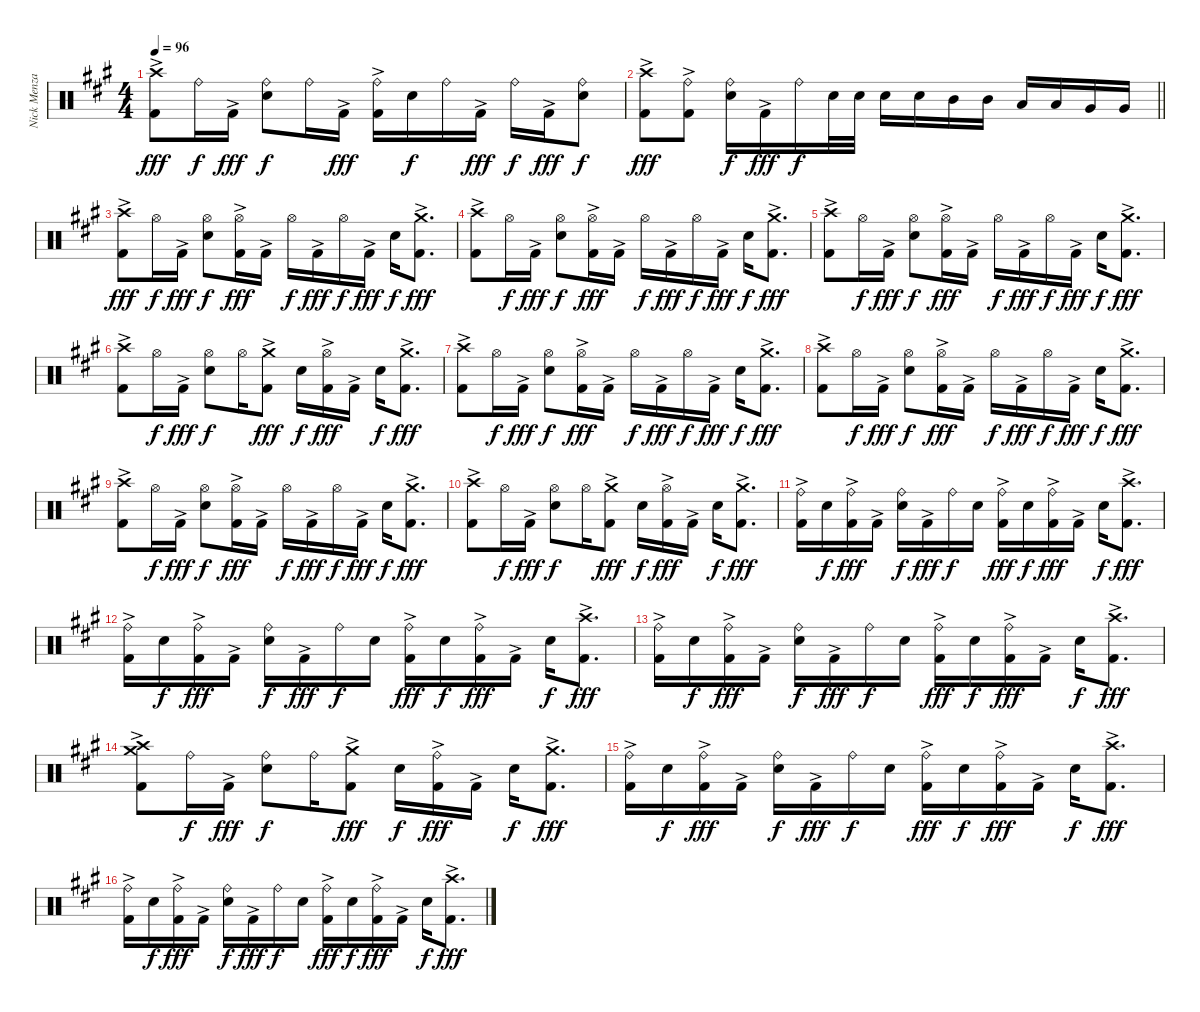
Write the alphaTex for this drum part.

\track ("Nick Menza" "Nick Menza") {instrument percussion}
\staff {score}
\articulation defaults
\ts (4 4)
\tempo 96
\clef neutral
\ks f#minor
("Crash high (hit)" "Kick (hit) 2"{ac}).8{dy fff} "Ride (bell)".16{dy f} "Kick (hit) 2"{ac}.16{dy fff} ("Ride (bell)" "Snare (hit) 2").8{dy f} "Ride (bell)".16 "Kick (hit) 2"{ac}.16{dy fff} ("Ride (bell)" "Kick (hit) 2"{ac}).16 "Snare (hit) 2".16{dy f} "Ride (bell)".16 "Kick (hit) 2"{ac}.16{dy fff} "Ride (bell)".16{dy f} "Kick (hit) 2"{ac}.16{dy fff} ("Ride (bell)" "Snare (hit) 2").8{dy f} |
\barLineRight lightlight
("Crash high (hit)" "Kick (hit) 2"{ac}).8{dy fff} ("Ride (bell)" "Kick (hit) 2"{ac}).8 ("Ride (bell)" "Snare (hit) 2").16{dy f} "Kick (hit) 2"{ac}.16{dy fff} "Ride (bell)".16{dy f} "Snare (hit) 2".32 "Snare (hit) 2".32 "Snare (hit) 2".16 "Snare (hit) 2".16 "Mid Tom (hit)".16 "Mid Tom (hit)".16 "Low Tom (hit)".16 "Low Tom (hit)".16 "Very Low Tom (hit)".16 "Very Low Tom (hit)".16 |
("Crash high (hit)" "Kick (hit) 2"{ac}).8{dy fff} "Hi-Hat (open)".16{dy f} "Kick (hit) 2"{ac}.16{dy fff} ("Hi-Hat (open)" "Snare (hit) 2").8{dy f} ("Hi-Hat (open)" "Kick (hit) 2"{ac}).16{dy fff} "Kick (hit) 2"{ac}.16 "Hi-Hat (open)".16{dy f} "Kick (hit) 2"{ac}.16{dy fff} "Hi-Hat (open)".16{dy f} "Kick (hit) 2"{ac}.16{dy fff} "Snare (hit) 2".16{dy f} ("Crash medium (hit)" "Kick (hit) 2"{ac}).8{d dy fff} |
("Crash high (hit)" "Kick (hit) 2"{ac}).8 "Hi-Hat (open)".16{dy f} "Kick (hit) 2"{ac}.16{dy fff} ("Hi-Hat (open)" "Snare (hit) 2").8{dy f} ("Hi-Hat (open)" "Kick (hit) 2"{ac}).16{dy fff} "Kick (hit) 2"{ac}.16 "Hi-Hat (open)".16{dy f} "Kick (hit) 2"{ac}.16{dy fff} "Hi-Hat (open)".16{dy f} "Kick (hit) 2"{ac}.16{dy fff} "Snare (hit) 2".16{dy f} ("Crash medium (hit)" "Kick (hit) 2"{ac}).8{d dy fff} |
("Crash high (hit)" "Kick (hit) 2"{ac}).8 "Hi-Hat (open)".16{dy f} "Kick (hit) 2"{ac}.16{dy fff} ("Hi-Hat (open)" "Snare (hit) 2").8{dy f} ("Hi-Hat (open)" "Kick (hit) 2"{ac}).16{dy fff} "Kick (hit) 2"{ac}.16 "Hi-Hat (open)".16{dy f} "Kick (hit) 2"{ac}.16{dy fff} "Hi-Hat (open)".16{dy f} "Kick (hit) 2"{ac}.16{dy fff} "Snare (hit) 2".16{dy f} ("Crash medium (hit)" "Kick (hit) 2"{ac}).8{d dy fff} |
("Crash high (hit)" "Kick (hit) 2"{ac}).8 "Hi-Hat (open)".16{dy f} "Kick (hit) 2"{ac}.16{dy fff} ("Hi-Hat (open)" "Snare (hit) 2").8{dy f} "Hi-Hat (open)".16 ("Crash medium (hit)" "Kick (hit) 2"{ac}).8{dy fff} "Snare (hit) 2".16{dy f} ("Hi-Hat (open)" "Kick (hit) 2"{ac}).16{dy fff} "Kick (hit) 2"{ac}.16 "Snare (hit) 2".16{dy f} ("Crash medium (hit)" "Kick (hit) 2"{ac}).8{d dy fff} |
("Crash high (hit)" "Kick (hit) 2"{ac}).8 "Hi-Hat (open)".16{dy f} "Kick (hit) 2"{ac}.16{dy fff} ("Hi-Hat (open)" "Snare (hit) 2").8{dy f} ("Hi-Hat (open)" "Kick (hit) 2"{ac}).16{dy fff} "Kick (hit) 2"{ac}.16 "Hi-Hat (open)".16{dy f} "Kick (hit) 2"{ac}.16{dy fff} "Hi-Hat (open)".16{dy f} "Kick (hit) 2"{ac}.16{dy fff} "Snare (hit) 2".16{dy f} ("Crash medium (hit)" "Kick (hit) 2"{ac}).8{d dy fff} |
("Crash high (hit)" "Kick (hit) 2"{ac}).8 "Hi-Hat (open)".16{dy f} "Kick (hit) 2"{ac}.16{dy fff} ("Hi-Hat (open)" "Snare (hit) 2").8{dy f} ("Hi-Hat (open)" "Kick (hit) 2"{ac}).16{dy fff} "Kick (hit) 2"{ac}.16 "Hi-Hat (open)".16{dy f} "Kick (hit) 2"{ac}.16{dy fff} "Hi-Hat (open)".16{dy f} "Kick (hit) 2"{ac}.16{dy fff} "Snare (hit) 2".16{dy f} ("Crash medium (hit)" "Kick (hit) 2"{ac}).8{d dy fff} |
("Crash high (hit)" "Kick (hit) 2"{ac}).8 "Hi-Hat (open)".16{dy f} "Kick (hit) 2"{ac}.16{dy fff} ("Hi-Hat (open)" "Snare (hit) 2").8{dy f} ("Hi-Hat (open)" "Kick (hit) 2"{ac}).16{dy fff} "Kick (hit) 2"{ac}.16 "Hi-Hat (open)".16{dy f} "Kick (hit) 2"{ac}.16{dy fff} "Hi-Hat (open)".16{dy f} "Kick (hit) 2"{ac}.16{dy fff} "Snare (hit) 2".16{dy f} ("Crash medium (hit)" "Kick (hit) 2"{ac}).8{d dy fff} |
("Crash high (hit)" "Kick (hit) 2"{ac}).8 "Hi-Hat (open)".16{dy f} "Kick (hit) 2"{ac}.16{dy fff} ("Hi-Hat (open)" "Snare (hit) 2").8{dy f} "Hi-Hat (open)".16 ("Crash medium (hit)" "Kick (hit) 2"{ac}).8{dy fff} "Snare (hit) 2".16{dy f} ("Hi-Hat (open)" "Kick (hit) 2"{ac}).16{dy fff} "Kick (hit) 2"{ac}.16 "Snare (hit) 2".16{dy f} ("Crash medium (hit)" "Kick (hit) 2"{ac}).8{d dy fff} |
("Ride (bell)" "Kick (hit) 2"{ac}).16 "Snare (hit) 2".16{dy f} ("Ride (bell)" "Kick (hit) 2"{ac}).16{dy fff} "Kick (hit) 2"{ac}.16 ("Ride (bell)" "Snare (hit) 2").16{dy f} "Kick (hit) 2"{ac}.16{dy fff} "Ride (bell)".16{dy f} "Snare (hit) 2".16 ("Ride (bell)" "Kick (hit) 2"{ac}).16{dy fff} "Snare (hit) 2".16{dy f} ("Ride (bell)" "Kick (hit) 2"{ac}).16{dy fff} "Kick (hit) 2"{ac}.16 "Snare (hit) 2".16{dy f} ("Crash high (hit)" "Kick (hit) 2"{ac}).8{d dy fff} |
("Ride (bell)" "Kick (hit) 2"{ac}).16 "Snare (hit) 2".16{dy f} ("Ride (bell)" "Kick (hit) 2"{ac}).16{dy fff} "Kick (hit) 2"{ac}.16 ("Ride (bell)" "Snare (hit) 2").16{dy f} "Kick (hit) 2"{ac}.16{dy fff} "Ride (bell)".16{dy f} "Snare (hit) 2".16 ("Ride (bell)" "Kick (hit) 2"{ac}).16{dy fff} "Snare (hit) 2".16{dy f} ("Ride (bell)" "Kick (hit) 2"{ac}).16{dy fff} "Kick (hit) 2"{ac}.16 "Snare (hit) 2".16{dy f} ("Crash high (hit)" "Kick (hit) 2"{ac}).8{d dy fff} |
("Ride (bell)" "Kick (hit) 2"{ac}).16 "Snare (hit) 2".16{dy f} ("Ride (bell)" "Kick (hit) 2"{ac}).16{dy fff} "Kick (hit) 2"{ac}.16 ("Ride (bell)" "Snare (hit) 2").16{dy f} "Kick (hit) 2"{ac}.16{dy fff} "Ride (bell)".16{dy f} "Snare (hit) 2".16 ("Ride (bell)" "Kick (hit) 2"{ac}).16{dy fff} "Snare (hit) 2".16{dy f} ("Ride (bell)" "Kick (hit) 2"{ac}).16{dy fff} "Kick (hit) 2"{ac}.16 "Snare (hit) 2".16{dy f} ("Crash high (hit)" "Kick (hit) 2"{ac}).8{d dy fff} |
("Crash high (hit)" "Crash medium (hit)" "Kick (hit) 2"{ac}).8 "Ride (bell)".16{dy f} "Kick (hit) 2"{ac}.16{dy fff} ("Ride (bell)" "Snare (hit) 2").8{dy f} "Ride (bell)".16 ("Crash medium (hit)" "Kick (hit) 2"{ac}).8{dy fff} "Snare (hit) 2".16{dy f} ("Ride (bell)" "Kick (hit) 2"{ac}).16{dy fff} "Kick (hit) 2"{ac}.16 "Snare (hit) 2".16{dy f} ("Crash medium (hit)" "Kick (hit) 2"{ac}).8{d dy fff} |
("Ride (bell)" "Kick (hit) 2"{ac}).16 "Snare (hit) 2".16{dy f} ("Ride (bell)" "Kick (hit) 2"{ac}).16{dy fff} "Kick (hit) 2"{ac}.16 ("Ride (bell)" "Snare (hit) 2").16{dy f} "Kick (hit) 2"{ac}.16{dy fff} "Ride (bell)".16{dy f} "Snare (hit) 2".16 ("Ride (bell)" "Kick (hit) 2"{ac}).16{dy fff} "Snare (hit) 2".16{dy f} ("Ride (bell)" "Kick (hit) 2"{ac}).16{dy fff} "Kick (hit) 2"{ac}.16 "Snare (hit) 2".16{dy f} ("Crash high (hit)" "Kick (hit) 2"{ac}).8{d dy fff} |
("Ride (bell)" "Kick (hit) 2"{ac}).16 "Snare (hit) 2".16{dy f} ("Ride (bell)" "Kick (hit) 2"{ac}).16{dy fff} "Kick (hit) 2"{ac}.16 ("Ride (bell)" "Snare (hit) 2").16{dy f} "Kick (hit) 2"{ac}.16{dy fff} "Ride (bell)".16{dy f} "Snare (hit) 2".16 ("Ride (bell)" "Kick (hit) 2"{ac}).16{dy fff} "Snare (hit) 2".16{dy f} ("Ride (bell)" "Kick (hit) 2"{ac}).16{dy fff} "Kick (hit) 2"{ac}.16 "Snare (hit) 2".16{dy f} ("Crash high (hit)" "Kick (hit) 2"{ac}).8{d dy fff}
